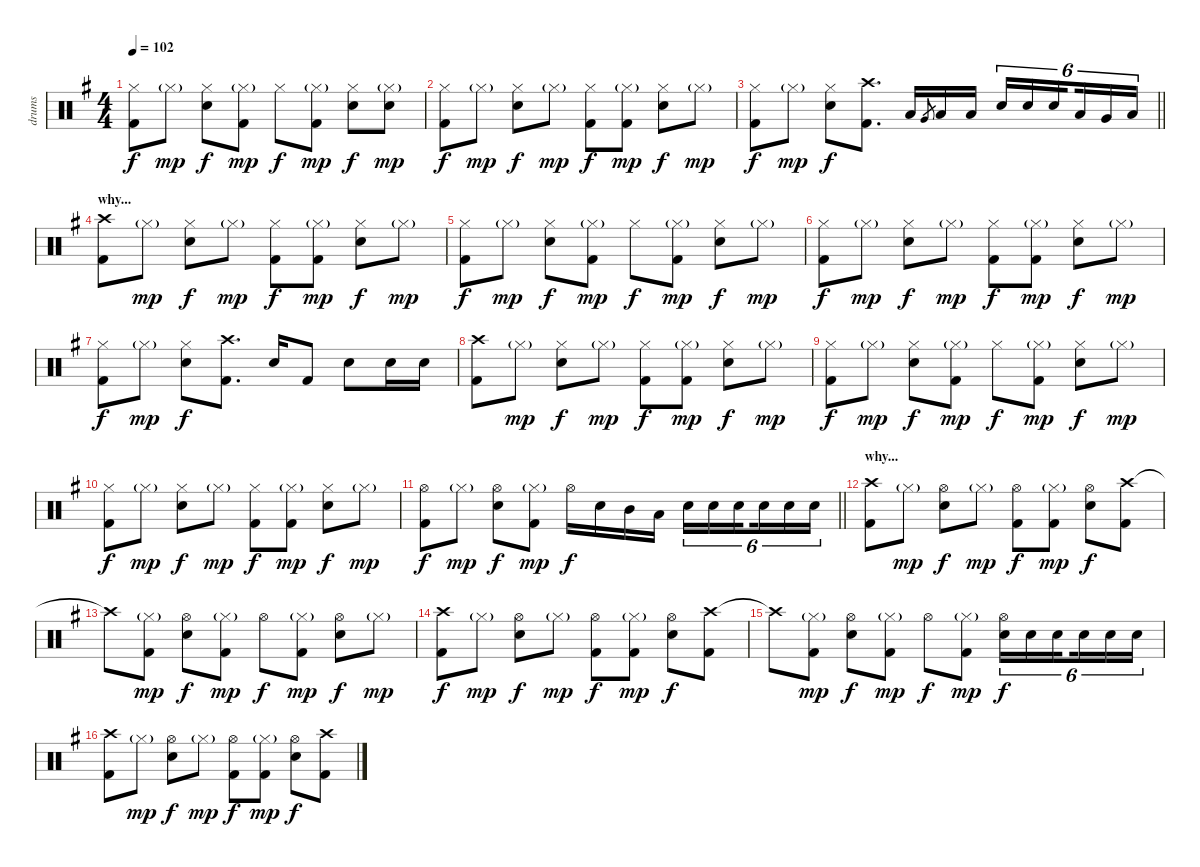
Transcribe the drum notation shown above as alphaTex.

\track ("drums" "drums") {instrument percussion}
\staff {score}
\articulation defaults
\ts (4 4)
\tempo 102
\clef neutral
\ks eminor
("Hi-Hat (closed)" "Kick (hit) 2").8{dy f} "Hi-Hat (closed)"{g}.8{dy mp} ("Hi-Hat (closed)" "Snare (hit) 2").8{dy f} ("Hi-Hat (closed)"{g} "Kick (hit) 2").8{dy mp} "Hi-Hat (closed)".8{dy f} ("Hi-Hat (closed)"{g} "Kick (hit) 2").8{dy mp} ("Hi-Hat (closed)" "Snare (hit) 2").8{dy f} ("Hi-Hat (closed)"{g} "Snare (hit) 2").8{dy mp} |
("Hi-Hat (closed)" "Kick (hit) 2").8{dy f} "Hi-Hat (closed)"{g}.8{dy mp} ("Hi-Hat (closed)" "Snare (hit) 2").8{dy f} "Hi-Hat (closed)"{g}.8{dy mp} ("Hi-Hat (closed)" "Kick (hit) 2").8{dy f} ("Hi-Hat (closed)"{g} "Kick (hit) 2").8{dy mp} ("Hi-Hat (closed)" "Snare (hit) 2").8{dy f} "Hi-Hat (closed)"{g}.8{dy mp} |
\barLineRight lightlight
("Hi-Hat (closed)" "Kick (hit) 2").8{dy f} "Hi-Hat (closed)"{g}.8{dy mp} ("Hi-Hat (closed)" "Snare (hit) 2").8{dy f} ("Crash high (hit)" "Kick (hit) 2").8{d} "Low Tom (hit)".16 "Very Low Tom (hit)".8{gr} "Low Floor Tom (hit)".16 "Low Floor Tom (hit)".16 "Snare (hit) 2".16{tu (6 4)} "Snare (hit) 2".16{tu (6 4)} "Snare (hit) 2".16{tu (6 4) beam splitsecondary} "Low Tom (hit)".16{tu (6 4)} "Very Low Tom (hit)".16{tu (6 4)} "Low Floor Tom (hit)".16{tu (6 4)} |
\section ("" "why...")
("Crash high (hit)" "Kick (hit) 2").8 "Hi-Hat (closed)"{g}.8{dy mp} ("Hi-Hat (closed)" "Snare (hit) 2").8{dy f} "Hi-Hat (closed)"{g}.8{dy mp} ("Hi-Hat (closed)" "Kick (hit) 2").8{dy f} ("Hi-Hat (closed)"{g} "Kick (hit) 2").8{dy mp} ("Hi-Hat (closed)" "Snare (hit) 2").8{dy f} "Hi-Hat (closed)"{g}.8{dy mp} |
("Hi-Hat (closed)" "Kick (hit) 2").8{dy f} "Hi-Hat (closed)"{g}.8{dy mp} ("Hi-Hat (closed)" "Snare (hit) 2").8{dy f} ("Hi-Hat (closed)"{g} "Kick (hit) 2").8{dy mp} "Hi-Hat (closed)".8{dy f} ("Hi-Hat (closed)"{g} "Kick (hit) 2").8{dy mp} ("Hi-Hat (closed)" "Snare (hit) 2").8{dy f} "Hi-Hat (closed)"{g}.8{dy mp} |
("Hi-Hat (closed)" "Kick (hit) 2").8{dy f} "Hi-Hat (closed)"{g}.8{dy mp} ("Hi-Hat (closed)" "Snare (hit) 2").8{dy f} "Hi-Hat (closed)"{g}.8{dy mp} ("Hi-Hat (closed)" "Kick (hit) 2").8{dy f} ("Hi-Hat (closed)"{g} "Kick (hit) 2").8{dy mp} ("Hi-Hat (closed)" "Snare (hit) 2").8{dy f} "Hi-Hat (closed)"{g}.8{dy mp} |
("Hi-Hat (closed)" "Kick (hit) 2").8{dy f} "Hi-Hat (closed)"{g}.8{dy mp} ("Hi-Hat (closed)" "Snare (hit) 2").8{dy f} ("Crash high (hit)" "Kick (hit) 2").8{d} "Snare (hit) 2".16 "Kick (hit) 2".8 "Snare (hit) 2".8 "Snare (hit) 2".16 "Snare (hit) 2".16 |
("Crash high (hit)" "Kick (hit) 2").8 "Hi-Hat (closed)"{g}.8{dy mp} ("Hi-Hat (closed)" "Snare (hit) 2").8{dy f} "Hi-Hat (closed)"{g}.8{dy mp} ("Hi-Hat (closed)" "Kick (hit) 2").8{dy f} ("Hi-Hat (closed)"{g} "Kick (hit) 2").8{dy mp} ("Hi-Hat (closed)" "Snare (hit) 2").8{dy f} "Hi-Hat (closed)"{g}.8{dy mp} |
("Hi-Hat (closed)" "Kick (hit) 2").8{dy f} "Hi-Hat (closed)"{g}.8{dy mp} ("Hi-Hat (closed)" "Snare (hit) 2").8{dy f} ("Hi-Hat (closed)"{g} "Kick (hit) 2").8{dy mp} "Hi-Hat (closed)".8{dy f} ("Hi-Hat (closed)"{g} "Kick (hit) 2").8{dy mp} ("Hi-Hat (closed)" "Snare (hit) 2").8{dy f} "Hi-Hat (closed)"{g}.8{dy mp} |
("Hi-Hat (closed)" "Kick (hit) 2").8{dy f} "Hi-Hat (closed)"{g}.8{dy mp} ("Hi-Hat (closed)" "Snare (hit) 2").8{dy f} "Hi-Hat (closed)"{g}.8{dy mp} ("Hi-Hat (closed)" "Kick (hit) 2").8{dy f} ("Hi-Hat (closed)"{g} "Kick (hit) 2").8{dy mp} ("Hi-Hat (closed)" "Snare (hit) 2").8{dy f} "Hi-Hat (closed)"{g}.8{dy mp} |
\barLineRight lightlight
("Hi-Hat (open)" "Kick (hit) 2").8{dy f} "Hi-Hat (closed)"{g}.8{dy mp} ("Hi-Hat (open)" "Snare (hit) 2").8{dy f} ("Hi-Hat (closed)"{g} "Kick (hit) 2").8{dy mp} "Hi-Hat (open)".16{dy f} "Snare (hit) 2".16 "Mid Tom (hit)".16 "Low Tom (hit)".16 "Snare (hit) 2".16{tu (6 4)} "Snare (hit) 2".16{tu (6 4)} "Snare (hit) 2".16{tu (6 4) beam splitsecondary} "Snare (hit) 2".16{tu (6 4)} "Snare (hit) 2".16{tu (6 4)} "Snare (hit) 2".16{tu (6 4)} |
\section ("" "why...")
("Crash high (hit)" "Kick (hit) 2").8 "Hi-Hat (closed)"{g}.8{dy mp} ("Hi-Hat (open)" "Snare (hit) 2").8{dy f} "Hi-Hat (closed)"{g}.8{dy mp} ("Hi-Hat (open)" "Kick (hit) 2").8{dy f} ("Hi-Hat (closed)"{g} "Kick (hit) 2").8{dy mp} ("Hi-Hat (open)" "Snare (hit) 2").8{dy f} ("Crash high (hit)" "Kick (hit) 2").8 |
"Crash high (hit)"{t}.8 ("Hi-Hat (closed)"{g} "Kick (hit) 2").8{dy mp} ("Hi-Hat (open)" "Snare (hit) 2").8{dy f} ("Hi-Hat (closed)"{g} "Kick (hit) 2").8{dy mp} "Hi-Hat (open)".8{dy f} ("Hi-Hat (closed)"{g} "Kick (hit) 2").8{dy mp} ("Hi-Hat (open)" "Snare (hit) 2").8{dy f} "Hi-Hat (closed)"{g}.8{dy mp} |
("Crash high (hit)" "Kick (hit) 2").8{dy f} "Hi-Hat (closed)"{g}.8{dy mp} ("Hi-Hat (open)" "Snare (hit) 2").8{dy f} "Hi-Hat (closed)"{g}.8{dy mp} ("Hi-Hat (open)" "Kick (hit) 2").8{dy f} ("Hi-Hat (closed)"{g} "Kick (hit) 2").8{dy mp} ("Hi-Hat (open)" "Snare (hit) 2").8{dy f} ("Crash high (hit)" "Kick (hit) 2").8 |
"Crash high (hit)"{t}.8 ("Hi-Hat (closed)"{g} "Kick (hit) 2").8{dy mp} ("Hi-Hat (open)" "Snare (hit) 2").8{dy f} ("Hi-Hat (closed)"{g} "Kick (hit) 2").8{dy mp} "Hi-Hat (open)".8{dy f} ("Hi-Hat (closed)"{g} "Kick (hit) 2").8{dy mp} ("Hi-Hat (open)" "Snare (hit) 2").16{tu (6 4) dy f} "Snare (hit) 2".16{tu (6 4)} "Snare (hit) 2".16{tu (6 4) beam splitsecondary} "Snare (hit) 2".16{tu (6 4)} "Snare (hit) 2".16{tu (6 4)} "Snare (hit) 2".16{tu (6 4)} |
("Crash high (hit)" "Kick (hit) 2").8 "Hi-Hat (closed)"{g}.8{dy mp} ("Hi-Hat (open)" "Snare (hit) 2").8{dy f} "Hi-Hat (closed)"{g}.8{dy mp} ("Hi-Hat (open)" "Kick (hit) 2").8{dy f} ("Hi-Hat (closed)"{g} "Kick (hit) 2").8{dy mp} ("Hi-Hat (open)" "Snare (hit) 2").8{dy f} ("Crash high (hit)" "Kick (hit) 2").8
